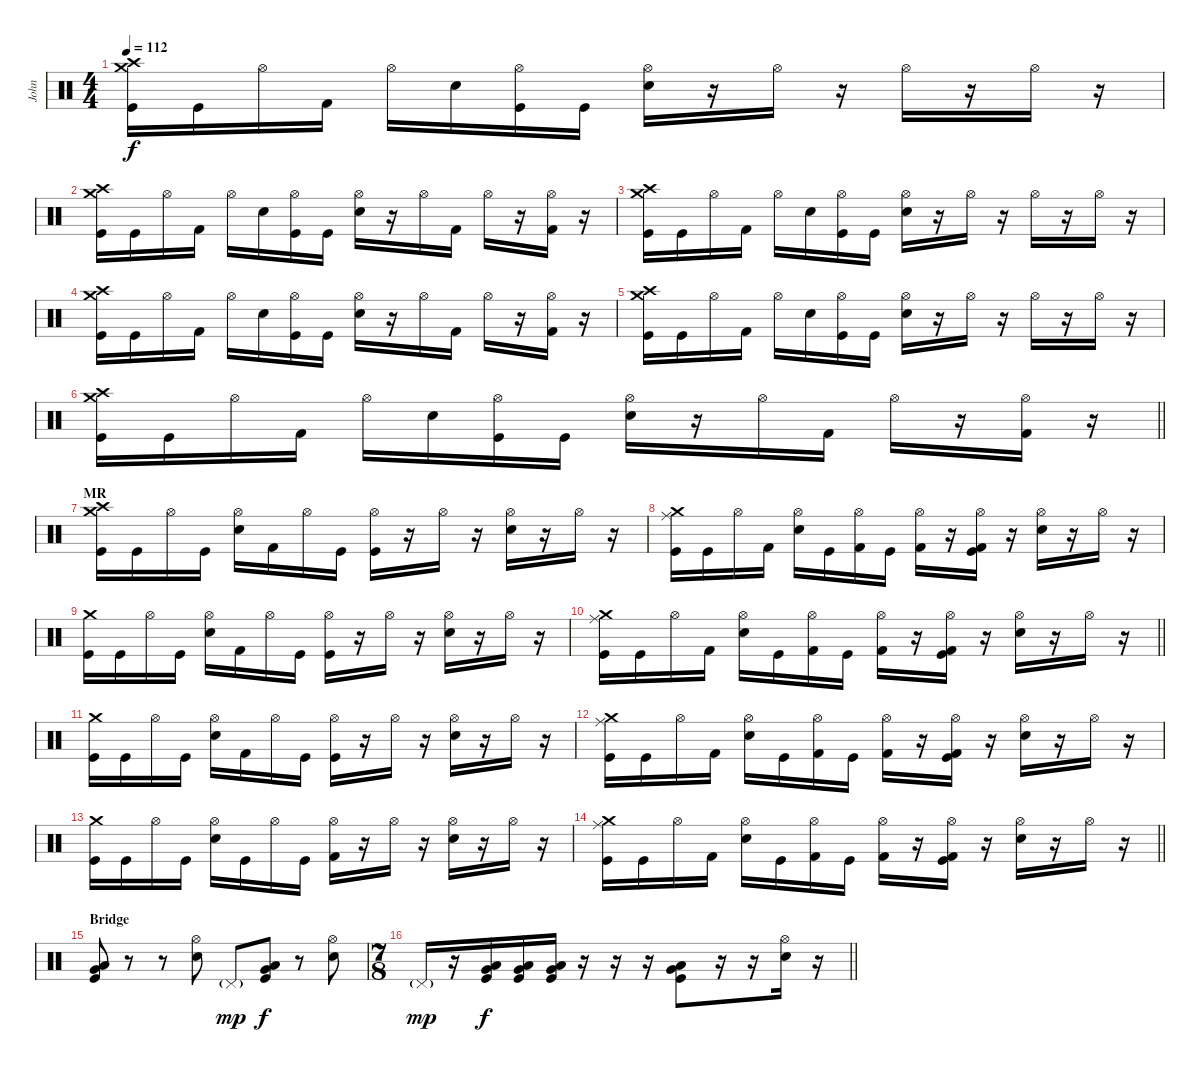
\track ("John" "John") {instrument percussion}
\staff {score}
\articulation defaults
\ts (4 4)
\tempo 112
\clef neutral
\ks c
("Crash medium (hit)" "Crash high (hit)" "Kick (hit)").16{dy f} "Kick (hit)".16 "Hi-Hat (open)".16 "Kick (hit) 2".16 "Hi-Hat (open)".16 "Electric Snare (hit)".16 ("Hi-Hat (open)" "Kick (hit)").16 "Kick (hit)".16 ("Hi-Hat (open)" "Electric Snare (hit)").16 r.16 "Hi-Hat (open)".16 r.16 "Hi-Hat (open)".16 r.16 "Hi-Hat (open)".16 r.16 |
("Crash high (hit)" "Crash medium (hit)" "Kick (hit)").16 "Kick (hit)".16 "Hi-Hat (open)".16 "Kick (hit) 2".16 "Hi-Hat (open)".16 "Electric Snare (hit)".16 ("Hi-Hat (open)" "Kick (hit)").16 "Kick (hit)".16 ("Hi-Hat (open)" "Electric Snare (hit)").16 r.16 "Hi-Hat (open)".16 "Kick (hit) 2".16 "Hi-Hat (open)".16 r.16 ("Hi-Hat (open)" "Kick (hit) 2").16 r.16 |
("Crash medium (hit)" "Crash high (hit)" "Kick (hit)").16 "Kick (hit)".16 "Hi-Hat (open)".16 "Kick (hit) 2".16 "Hi-Hat (open)".16 "Electric Snare (hit)".16 ("Hi-Hat (open)" "Kick (hit)").16 "Kick (hit)".16 ("Hi-Hat (open)" "Electric Snare (hit)").16 r.16 "Hi-Hat (open)".16 r.16 "Hi-Hat (open)".16 r.16 "Hi-Hat (open)".16 r.16 |
("Crash high (hit)" "Crash medium (hit)" "Kick (hit)").16 "Kick (hit)".16 "Hi-Hat (open)".16 "Kick (hit) 2".16 "Hi-Hat (open)".16 "Electric Snare (hit)".16 ("Hi-Hat (open)" "Kick (hit)").16 "Kick (hit)".16 ("Hi-Hat (open)" "Electric Snare (hit)").16 r.16 "Hi-Hat (open)".16 "Kick (hit) 2".16 "Hi-Hat (open)".16 r.16 ("Hi-Hat (open)" "Kick (hit) 2").16 r.16 |
("Crash medium (hit)" "Crash high (hit)" "Kick (hit)").16 "Kick (hit)".16 "Hi-Hat (open)".16 "Kick (hit) 2".16 "Hi-Hat (open)".16 "Electric Snare (hit)".16 ("Hi-Hat (open)" "Kick (hit)").16 "Kick (hit)".16 ("Hi-Hat (open)" "Electric Snare (hit)").16 r.16 "Hi-Hat (open)".16 r.16 "Hi-Hat (open)".16 r.16 "Hi-Hat (open)".16 r.16 |
\barLineRight lightlight
("Crash high (hit)" "Crash medium (hit)" "Kick (hit)").16 "Kick (hit)".16 "Hi-Hat (open)".16 "Kick (hit) 2".16 "Hi-Hat (open)".16 "Electric Snare (hit)".16 ("Hi-Hat (open)" "Kick (hit)").16 "Kick (hit)".16 ("Hi-Hat (open)" "Electric Snare (hit)").16 r.16 "Hi-Hat (open)".16 "Kick (hit) 2".16 "Hi-Hat (open)".16 r.16 ("Hi-Hat (open)" "Kick (hit) 2").16 r.16 |
\section ("" "MR")
("Crash medium (hit)" "Crash high (hit)" "Kick (hit)").16 "Kick (hit)".16 "Hi-Hat (open)".16 "Kick (hit)".16 ("Hi-Hat (open)" "Electric Snare (hit)").16 "Kick (hit) 2".16 "Hi-Hat (open)".16 "Kick (hit)".16 ("Hi-Hat (open)" "Kick (hit)").16 r.16 "Hi-Hat (open)".16 r.16 ("Hi-Hat (open)" "Electric Snare (hit)").16 r.16 "Hi-Hat (open)".16 r.16 |
("Crash medium (hit)" "Ride (middle)" "Kick (hit)").16 "Kick (hit)".16 "Hi-Hat (open)".16 "Kick (hit) 2".16 ("Hi-Hat (open)" "Electric Snare (hit)").16 "Kick (hit)".16 ("Hi-Hat (open)" "Kick (hit) 2").16 "Kick (hit)".16 ("Hi-Hat (open)" "Kick (hit) 2").16 r.16 ("Hi-Hat (open)" "Kick (hit)" "Kick (hit) 2").16 r.16 ("Hi-Hat (open)" "Electric Snare (hit)").16 r.16 "Hi-Hat (open)".16 r.16 |
("Crash medium (hit)" "Kick (hit)").16 "Kick (hit)".16 "Hi-Hat (open)".16 "Kick (hit)".16 ("Hi-Hat (open)" "Electric Snare (hit)").16 "Kick (hit) 2".16 "Hi-Hat (open)".16 "Kick (hit)".16 ("Hi-Hat (open)" "Kick (hit)").16 r.16 "Hi-Hat (open)".16 r.16 ("Hi-Hat (open)" "Electric Snare (hit)").16 r.16 "Hi-Hat (open)".16 r.16 |
\barLineRight lightlight
("Crash medium (hit)" "Ride (middle)" "Kick (hit)").16 "Kick (hit)".16 "Hi-Hat (open)".16 "Kick (hit) 2".16 ("Hi-Hat (open)" "Electric Snare (hit)").16 "Kick (hit)".16 ("Hi-Hat (open)" "Kick (hit) 2").16 "Kick (hit)".16 ("Hi-Hat (open)" "Kick (hit) 2").16 r.16 ("Hi-Hat (open)" "Kick (hit)" "Kick (hit) 2").16 r.16 ("Hi-Hat (open)" "Electric Snare (hit)").16 r.16 "Hi-Hat (open)".16 r.16 |
("Crash medium (hit)" "Kick (hit)").16 "Kick (hit)".16 "Hi-Hat (open)".16 "Kick (hit)".16 ("Hi-Hat (open)" "Electric Snare (hit)").16 "Kick (hit) 2".16 "Hi-Hat (open)".16 "Kick (hit)".16 ("Hi-Hat (open)" "Kick (hit)").16 r.16 "Hi-Hat (open)".16 r.16 ("Hi-Hat (open)" "Electric Snare (hit)").16 r.16 "Hi-Hat (open)".16 r.16 |
("Crash medium (hit)" "Ride (middle)" "Kick (hit)").16 "Kick (hit)".16 "Hi-Hat (open)".16 "Kick (hit) 2".16 ("Hi-Hat (open)" "Electric Snare (hit)").16 "Kick (hit)".16 ("Hi-Hat (open)" "Kick (hit) 2").16 "Kick (hit)".16 ("Hi-Hat (open)" "Kick (hit) 2").16 r.16 ("Hi-Hat (open)" "Kick (hit)" "Kick (hit) 2").16 r.16 ("Hi-Hat (open)" "Electric Snare (hit)").16 r.16 "Hi-Hat (open)".16 r.16 |
("Crash medium (hit)" "Kick (hit)").16 "Kick (hit)".16 "Hi-Hat (open)".16 "Kick (hit)".16 ("Hi-Hat (open)" "Electric Snare (hit)").16 "Kick (hit)".16 "Hi-Hat (open)".16 "Kick (hit)".16 ("Hi-Hat (open)" "Kick (hit) 2").16 r.16 "Hi-Hat (open)".16 r.16 ("Hi-Hat (open)" "Electric Snare (hit)").16 r.16 "Hi-Hat (open)".16 r.16 |
\barLineRight lightlight
("Crash medium (hit)" "Ride (middle)" "Kick (hit)").16 "Kick (hit)".16 "Hi-Hat (open)".16 "Kick (hit) 2".16 ("Hi-Hat (open)" "Electric Snare (hit)").16 "Kick (hit)".16 ("Hi-Hat (open)" "Kick (hit) 2").16 "Kick (hit)".16 ("Hi-Hat (open)" "Kick (hit) 2").16 r.16 ("Hi-Hat (open)" "Kick (hit)" "Kick (hit) 2").16 r.16 ("Hi-Hat (open)" "Electric Snare (hit)").16 r.16 "Hi-Hat (open)".16 r.16 |
\section ("" "Bridge")
("Very Low Tom (hit)" "Low Tom (hit)" "Kick (hit)").8 r.8 r.8 ("Hi-Hat (open)" "Electric Snare (hit)").8 "Pedal Hi-Hat (hit)"{g}.8{dy mp} ("Very Low Tom (hit)" "Low Tom (hit)" "Kick (hit)").8{dy f} r.8 ("Hi-Hat (open)" "Electric Snare (hit)").8 |
\ts (7 8)
\barLineRight lightlight "Pedal Hi-Hat (hit)"{g}.16{dy mp}
r.16 ("Very Low Tom (hit)" "Low Tom (hit)" "Kick (hit)").16{dy f} ("Very Low Tom (hit)" "Low Tom (hit)" "Kick (hit)").16 ("Very Low Tom (hit)" "Low Tom (hit)" "Kick (hit)").16 r.16 r.16 r.16 ("Very Low Tom (hit)" "Low Tom (hit)" "Kick (hit)").8 r.16 r.16 ("Hi-Hat (open)" "Electric Snare (hit)").16 r.16
